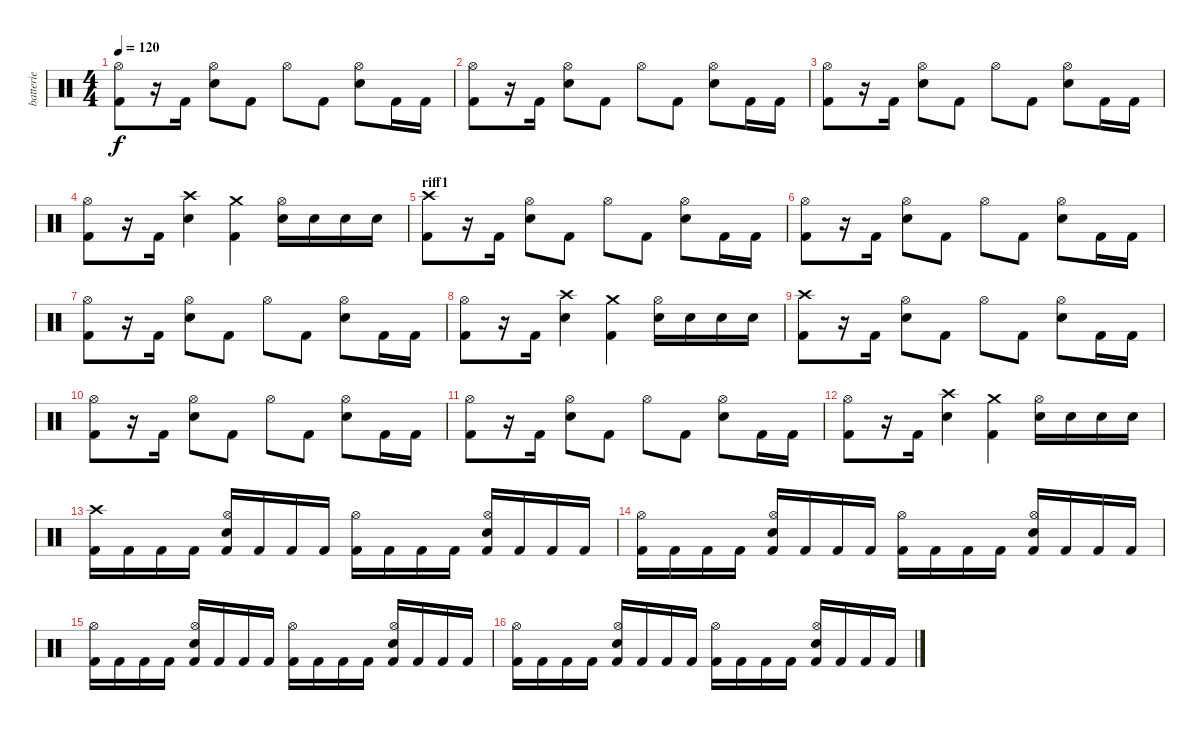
\track ("batterie" "batterie") {instrument percussion}
\staff {score}
\articulation defaults
\ts (4 4)
\tempo 120
\clef neutral
\ks c
("Kick (hit) 2" "Hi-Hat (open)").8{dy f} r.16 "Kick (hit) 2".16 ("Snare (hit) 2" "Hi-Hat (open)").8 "Kick (hit) 2".8 "Hi-Hat (open)".8 "Kick (hit) 2".8 ("Snare (hit) 2" "Hi-Hat (open)").8 "Kick (hit) 2".16 "Kick (hit) 2".16 |
("Kick (hit) 2" "Hi-Hat (open)").8 r.16 "Kick (hit) 2".16 ("Snare (hit) 2" "Hi-Hat (open)").8 "Kick (hit) 2".8 "Hi-Hat (open)".8 "Kick (hit) 2".8 ("Snare (hit) 2" "Hi-Hat (open)").8 "Kick (hit) 2".16 "Kick (hit) 2".16 |
("Kick (hit) 2" "Hi-Hat (open)").8 r.16 "Kick (hit) 2".16 ("Snare (hit) 2" "Hi-Hat (open)").8 "Kick (hit) 2".8 "Hi-Hat (open)".8 "Kick (hit) 2".8 ("Snare (hit) 2" "Hi-Hat (open)").8 "Kick (hit) 2".16 "Kick (hit) 2".16 |
("Kick (hit) 2" "Hi-Hat (open)").8 r.16 "Kick (hit) 2".16 ("Crash high (hit)" "Snare (hit) 2").4 ("Crash medium (hit)" "Kick (hit) 2").4 ("Snare (hit) 2" "Hi-Hat (open)").16 "Snare (hit) 2".16 "Snare (hit) 2".16 "Snare (hit) 2".16 |
\section ("" "riff1")
("Crash high (hit)" "Kick (hit) 2").8 r.16 "Kick (hit) 2".16 ("Snare (hit) 2" "Hi-Hat (open)").8 "Kick (hit) 2".8 "Hi-Hat (open)".8 "Kick (hit) 2".8 ("Snare (hit) 2" "Hi-Hat (open)").8 "Kick (hit) 2".16 "Kick (hit) 2".16 |
("Kick (hit) 2" "Hi-Hat (open)").8 r.16 "Kick (hit) 2".16 ("Snare (hit) 2" "Hi-Hat (open)").8 "Kick (hit) 2".8 "Hi-Hat (open)".8 "Kick (hit) 2".8 ("Snare (hit) 2" "Hi-Hat (open)").8 "Kick (hit) 2".16 "Kick (hit) 2".16 |
("Kick (hit) 2" "Hi-Hat (open)").8 r.16 "Kick (hit) 2".16 ("Snare (hit) 2" "Hi-Hat (open)").8 "Kick (hit) 2".8 "Hi-Hat (open)".8 "Kick (hit) 2".8 ("Snare (hit) 2" "Hi-Hat (open)").8 "Kick (hit) 2".16 "Kick (hit) 2".16 |
("Kick (hit) 2" "Hi-Hat (open)").8 r.16 "Kick (hit) 2".16 ("Crash high (hit)" "Snare (hit) 2").4 ("Crash medium (hit)" "Kick (hit) 2").4 ("Snare (hit) 2" "Hi-Hat (open)").16 "Snare (hit) 2".16 "Snare (hit) 2".16 "Snare (hit) 2".16 |
("Crash high (hit)" "Kick (hit) 2").8 r.16 "Kick (hit) 2".16 ("Snare (hit) 2" "Hi-Hat (open)").8 "Kick (hit) 2".8 "Hi-Hat (open)".8 "Kick (hit) 2".8 ("Snare (hit) 2" "Hi-Hat (open)").8 "Kick (hit) 2".16 "Kick (hit) 2".16 |
("Kick (hit) 2" "Hi-Hat (open)").8 r.16 "Kick (hit) 2".16 ("Snare (hit) 2" "Hi-Hat (open)").8 "Kick (hit) 2".8 "Hi-Hat (open)".8 "Kick (hit) 2".8 ("Snare (hit) 2" "Hi-Hat (open)").8 "Kick (hit) 2".16 "Kick (hit) 2".16 |
("Kick (hit) 2" "Hi-Hat (open)").8 r.16 "Kick (hit) 2".16 ("Snare (hit) 2" "Hi-Hat (open)").8 "Kick (hit) 2".8 "Hi-Hat (open)".8 "Kick (hit) 2".8 ("Snare (hit) 2" "Hi-Hat (open)").8 "Kick (hit) 2".16 "Kick (hit) 2".16 |
("Kick (hit) 2" "Hi-Hat (open)").8 r.16 "Kick (hit) 2".16 ("Crash high (hit)" "Snare (hit) 2").4 ("Crash medium (hit)" "Kick (hit) 2").4 ("Snare (hit) 2" "Hi-Hat (open)").16 "Snare (hit) 2".16 "Snare (hit) 2".16 "Snare (hit) 2".16 |
("Crash high (hit)" "Kick (hit) 2").16 "Kick (hit) 2".16 "Kick (hit) 2".16 "Kick (hit) 2".16 ("Snare (hit) 2" "Kick (hit) 2" "Hi-Hat (open)").16 "Kick (hit) 2".16 "Kick (hit) 2".16 "Kick (hit) 2".16 ("Kick (hit) 2" "Hi-Hat (open)").16 "Kick (hit) 2".16 "Kick (hit) 2".16 "Kick (hit) 2".16 ("Snare (hit) 2" "Kick (hit) 2" "Hi-Hat (open)").16 "Kick (hit) 2".16 "Kick (hit) 2".16 "Kick (hit) 2".16 |
("Kick (hit) 2" "Hi-Hat (open)").16 "Kick (hit) 2".16 "Kick (hit) 2".16 "Kick (hit) 2".16 ("Snare (hit) 2" "Kick (hit) 2" "Hi-Hat (open)").16 "Kick (hit) 2".16 "Kick (hit) 2".16 "Kick (hit) 2".16 ("Kick (hit) 2" "Hi-Hat (open)").16 "Kick (hit) 2".16 "Kick (hit) 2".16 "Kick (hit) 2".16 ("Snare (hit) 2" "Kick (hit) 2" "Hi-Hat (open)").16 "Kick (hit) 2".16 "Kick (hit) 2".16 "Kick (hit) 2".16 |
("Kick (hit) 2" "Hi-Hat (open)").16 "Kick (hit) 2".16 "Kick (hit) 2".16 "Kick (hit) 2".16 ("Snare (hit) 2" "Kick (hit) 2" "Hi-Hat (open)").16 "Kick (hit) 2".16 "Kick (hit) 2".16 "Kick (hit) 2".16 ("Kick (hit) 2" "Hi-Hat (open)").16 "Kick (hit) 2".16 "Kick (hit) 2".16 "Kick (hit) 2".16 ("Snare (hit) 2" "Kick (hit) 2" "Hi-Hat (open)").16 "Kick (hit) 2".16 "Kick (hit) 2".16 "Kick (hit) 2".16 |
("Kick (hit) 2" "Hi-Hat (open)").16 "Kick (hit) 2".16 "Kick (hit) 2".16 "Kick (hit) 2".16 ("Snare (hit) 2" "Kick (hit) 2" "Hi-Hat (open)").16 "Kick (hit) 2".16 "Kick (hit) 2".16 "Kick (hit) 2".16 ("Kick (hit) 2" "Hi-Hat (open)").16 "Kick (hit) 2".16 "Kick (hit) 2".16 "Kick (hit) 2".16 ("Snare (hit) 2" "Kick (hit) 2" "Hi-Hat (open)").16 "Kick (hit) 2".16 "Kick (hit) 2".16 "Kick (hit) 2".16
